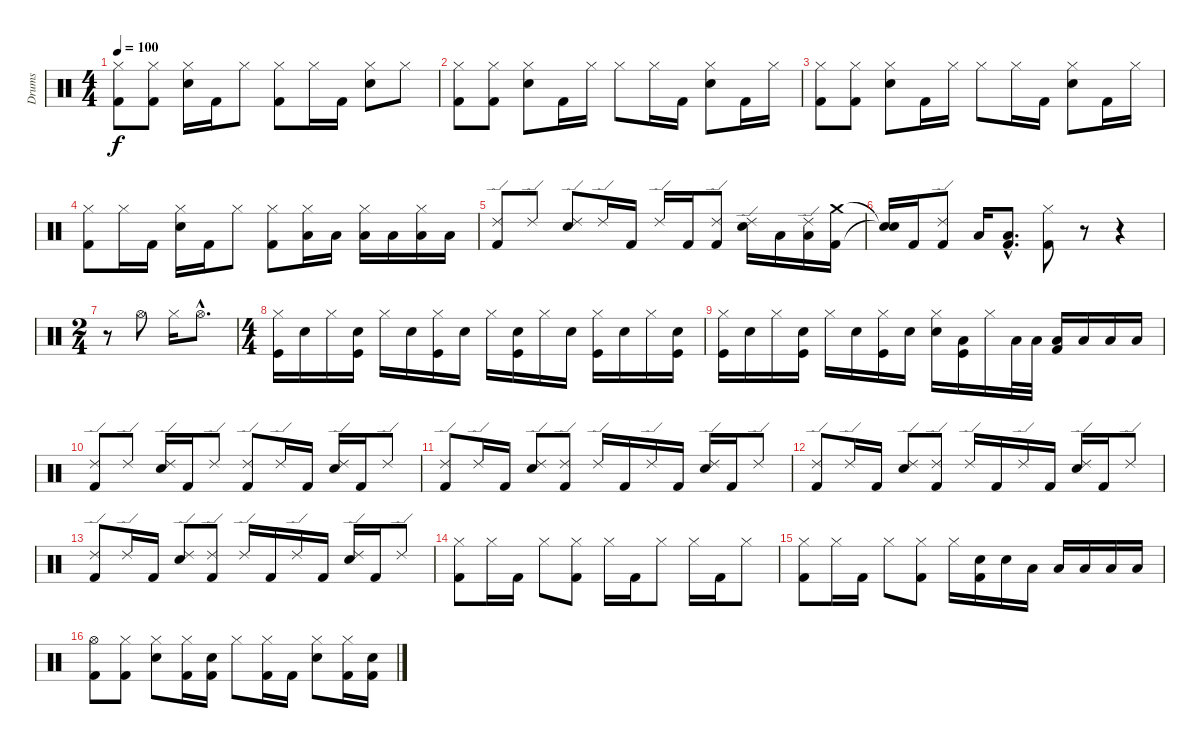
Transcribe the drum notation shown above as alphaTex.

\track ("Drums" "Drums") {instrument percussion}
\staff {score}
\articulation defaults
\ts (4 4)
\tempo 100
\clef neutral
\ks c
("Hi-Hat (closed)" "Kick (hit) 2").8{dy f} ("Hi-Hat (closed)" "Kick (hit) 2").8 ("Hi-Hat (closed)" "Electric Snare (hit)").16 "Kick (hit) 2".16 "Hi-Hat (closed)".8 ("Hi-Hat (closed)" "Kick (hit) 2").8 "Hi-Hat (closed)".16 "Kick (hit) 2".16 ("Hi-Hat (closed)" "Electric Snare (hit)").8 "Hi-Hat (closed)".8 |
("Hi-Hat (closed)" "Kick (hit) 2").8 ("Hi-Hat (closed)" "Kick (hit) 2").8 ("Hi-Hat (closed)" "Electric Snare (hit)").8 "Kick (hit) 2".16 "Hi-Hat (closed)".16 "Hi-Hat (closed)".8 "Hi-Hat (closed)".16 "Kick (hit) 2".16 ("Hi-Hat (closed)" "Electric Snare (hit)").8 "Kick (hit) 2".16 "Hi-Hat (closed)".16 |
("Hi-Hat (closed)" "Kick (hit) 2").8 ("Hi-Hat (closed)" "Kick (hit) 2").8 ("Hi-Hat (closed)" "Electric Snare (hit)").8 "Kick (hit) 2".16 "Hi-Hat (closed)".16 "Hi-Hat (closed)".8 "Hi-Hat (closed)".16 "Kick (hit) 2".16 ("Hi-Hat (closed)" "Electric Snare (hit)").8 "Kick (hit) 2".16 "Hi-Hat (closed)".16 |
("Hi-Hat (closed)" "Kick (hit) 2").8 "Hi-Hat (closed)".16 "Kick (hit) 2".16 ("Hi-Hat (closed)" "Electric Snare (hit)").16 "Kick (hit) 2".16 "Hi-Hat (closed)".8 ("Hi-Hat (closed)" "Kick (hit) 2").8 ("Hi-Hat (closed)" "Low Floor Tom (hit)").16 "Low Floor Tom (hit)".16 ("Hi-Hat (closed)" "Low Floor Tom (hit)").16 "Low Floor Tom (hit)".16 ("Hi-Hat (closed)" "Low Floor Tom (hit)").16 "Low Floor Tom (hit)".16 |
("Ride (edge) 2" "Kick (hit) 2").8 "Ride (edge) 2".8 ("Ride (edge) 2" "Electric Snare (hit)").8 "Ride (edge) 2".16 "Kick (hit) 2".16 "Ride (edge) 2".16 "Kick (hit) 2".16 ("Ride (edge) 2" "Kick (hit) 2").8 ("Ride (edge) 2" "Electric Snare (hit)").16 "Low Floor Tom (hit)".16 ("Ride (edge) 2" "Low Floor Tom (hit)").16 ("Crash medium (hit)" "Kick (hit) 2").16 |
("Snare (hit)"{t} "Snare (hit)"{t}).16 "Kick (hit) 2".16 ("Ride (edge) 2" "Kick (hit) 2").8 "Low Floor Tom (hit)".16 ("Low Floor Tom (hit)"{hac} "Kick (hit) 2"{hac}).8{d} ("Hi-Hat (closed)" "Kick (hit) 2").8 r.8 r.4 |
\ts (2 4)
r.8 "Hi-Hat (open)".8 "Hi-Hat (closed)".16 "Hi-Hat (open)"{hac}.8{d} |
\ts (4 4)
("Hi-Hat (closed)" "Kick (hit)").16 "Snare (hit) 2".16 "Hi-Hat (closed)".16 ("Snare (hit) 2" "Kick (hit)").16 "Hi-Hat (closed)".16 "Snare (hit) 2".16 ("Hi-Hat (closed)" "Kick (hit)").16 "Snare (hit) 2".16 "Hi-Hat (closed)".16 ("Snare (hit) 2" "Kick (hit)").16 "Hi-Hat (closed)".16 "Snare (hit) 2".16 ("Hi-Hat (closed)" "Kick (hit)").16 "Snare (hit) 2".16 "Hi-Hat (closed)".16 ("Snare (hit) 2" "Kick (hit)").16 |
("Hi-Hat (closed)" "Kick (hit)").16 "Snare (hit) 2".16 "Hi-Hat (closed)".16 ("Snare (hit) 2" "Kick (hit)").16 "Hi-Hat (closed)".16 "Snare (hit) 2".16 ("Hi-Hat (closed)" "Kick (hit)").16 "Snare (hit) 2".16 ("Hi-Hat (closed)" "Snare (hit) 2").16 ("Low Floor Tom (hit)" "Kick (hit)").16 "Hi-Hat (closed)".16 "Low Tom (hit)".32 "Low Tom (hit)".32 ("Low Floor Tom (hit)" "Kick (hit) 2").16 "Low Tom (hit)".16 "Low Tom (hit)".16 "Low Tom (hit)".16 |
("Ride (edge) 2" "Kick (hit) 2").8 "Ride (edge) 2".8 ("Ride (edge) 2" "Electric Snare (hit)").16 "Kick (hit) 2".16 "Ride (edge) 2".8 ("Ride (edge) 2" "Kick (hit) 2").8 "Ride (edge) 2".16 "Kick (hit) 2".16 ("Ride (edge) 2" "Electric Snare (hit)").16 "Kick (hit) 2".16 "Ride (edge) 2".8 |
("Ride (edge) 2" "Kick (hit) 2").8 "Ride (edge) 2".16 "Kick (hit) 2".16 ("Ride (edge) 2" "Electric Snare (hit)").8 ("Ride (edge) 2" "Kick (hit) 2").8 "Ride (edge) 2".16 "Kick (hit) 2".16 "Ride (edge) 2".16 "Kick (hit) 2".16 ("Ride (edge) 2" "Electric Snare (hit)").16 "Kick (hit) 2".16 "Ride (edge) 2".8 |
("Ride (edge) 2" "Kick (hit) 2").8 "Ride (edge) 2".16 "Kick (hit) 2".16 ("Ride (edge) 2" "Electric Snare (hit)").8 ("Ride (edge) 2" "Kick (hit) 2").8 "Ride (edge) 2".16 "Kick (hit) 2".16 "Ride (edge) 2".16 "Kick (hit) 2".16 ("Ride (edge) 2" "Electric Snare (hit)").16 "Kick (hit) 2".16 "Ride (edge) 2".8 |
("Ride (edge) 2" "Kick (hit) 2").8 "Ride (edge) 2".16 "Kick (hit) 2".16 ("Ride (edge) 2" "Electric Snare (hit)").8 ("Ride (edge) 2" "Kick (hit) 2").8 "Ride (edge) 2".16 "Kick (hit) 2".16 "Ride (edge) 2".16 "Kick (hit) 2".16 ("Ride (edge) 2" "Electric Snare (hit)").16 "Kick (hit) 2".16 "Ride (edge) 2".8 |
("Hi-Hat (closed)" "Kick (hit) 2").8 "Hi-Hat (closed)".16 "Kick (hit) 2".16 "Hi-Hat (closed)".8 ("Hi-Hat (closed)" "Kick (hit) 2").8 "Hi-Hat (closed)".16 "Kick (hit) 2".16 "Hi-Hat (closed)".8 "Hi-Hat (closed)".16 "Kick (hit) 2".16 "Hi-Hat (closed)".8 |
("Hi-Hat (closed)" "Kick (hit) 2").8 "Hi-Hat (closed)".16 "Kick (hit) 2".16 "Hi-Hat (closed)".8 ("Hi-Hat (closed)" "Kick (hit) 2").8 "Hi-Hat (closed)".16 ("Electric Snare (hit)" "Kick (hit) 2").16 "Electric Snare (hit)".16 "Low Floor Tom (hit)".16 "Low Floor Tom (hit)".16 "Low Floor Tom (hit)".16 "Low Floor Tom (hit)".16 "Low Floor Tom (hit)".16 |
("Hi-Hat (open)" "Kick (hit) 2").8 ("Hi-Hat (closed)" "Kick (hit) 2").8 ("Hi-Hat (closed)" "Electric Snare (hit)").8 ("Hi-Hat (closed)" "Kick (hit) 2").16 ("Electric Snare (hit)" "Kick (hit) 2").16 "Hi-Hat (closed)".8 ("Hi-Hat (closed)" "Kick (hit) 2").16 "Kick (hit) 2".16 ("Hi-Hat (closed)" "Electric Snare (hit)").8 ("Hi-Hat (closed)" "Kick (hit) 2").16 ("Electric Snare (hit)" "Kick (hit) 2").16
